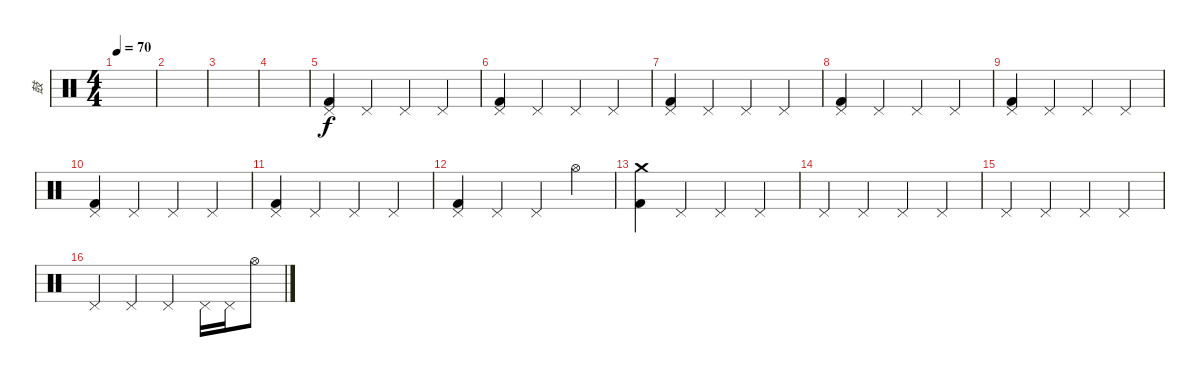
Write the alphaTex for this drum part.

\track ("鼓" "鼓") {instrument percussion}
\staff {score}
\articulation defaults
\ts (4 4)
\tempo 70
\clef neutral
\ks c
|
|
|
|
("Pedal Hi-Hat (hit)" "Kick (hit) 2").4 "Pedal Hi-Hat (hit)".4 "Pedal Hi-Hat (hit)".4 "Pedal Hi-Hat (hit)".4 |
("Pedal Hi-Hat (hit)" "Kick (hit) 2").4 "Pedal Hi-Hat (hit)".4 "Pedal Hi-Hat (hit)".4 "Pedal Hi-Hat (hit)".4 |
("Pedal Hi-Hat (hit)" "Kick (hit) 2").4 "Pedal Hi-Hat (hit)".4 "Pedal Hi-Hat (hit)".4 "Pedal Hi-Hat (hit)".4 |
("Pedal Hi-Hat (hit)" "Kick (hit) 2").4 "Pedal Hi-Hat (hit)".4 "Pedal Hi-Hat (hit)".4 "Pedal Hi-Hat (hit)".4 |
("Pedal Hi-Hat (hit)" "Kick (hit) 2").4 "Pedal Hi-Hat (hit)".4 "Pedal Hi-Hat (hit)".4 "Pedal Hi-Hat (hit)".4 |
("Pedal Hi-Hat (hit)" "Kick (hit) 2").4 "Pedal Hi-Hat (hit)".4 "Pedal Hi-Hat (hit)".4 "Pedal Hi-Hat (hit)".4 |
("Pedal Hi-Hat (hit)" "Kick (hit) 2").4 "Pedal Hi-Hat (hit)".4 "Pedal Hi-Hat (hit)".4 "Pedal Hi-Hat (hit)".4 |
("Pedal Hi-Hat (hit)" "Kick (hit) 2").4 "Pedal Hi-Hat (hit)".4 "Pedal Hi-Hat (hit)".4 "Hi-Hat (open)".4 |
("Crash medium (hit)" "Kick (hit) 2").4 "Pedal Hi-Hat (hit)".4 "Pedal Hi-Hat (hit)".4 "Pedal Hi-Hat (hit)".4 |
"Pedal Hi-Hat (hit)".4 "Pedal Hi-Hat (hit)".4 "Pedal Hi-Hat (hit)".4 "Pedal Hi-Hat (hit)".4 |
"Pedal Hi-Hat (hit)".4 "Pedal Hi-Hat (hit)".4 "Pedal Hi-Hat (hit)".4 "Pedal Hi-Hat (hit)".4 |
"Pedal Hi-Hat (hit)".4 "Pedal Hi-Hat (hit)".4 "Pedal Hi-Hat (hit)".4 "Pedal Hi-Hat (hit)".16 "Pedal Hi-Hat (hit)".16 "Hi-Hat (open)".8
